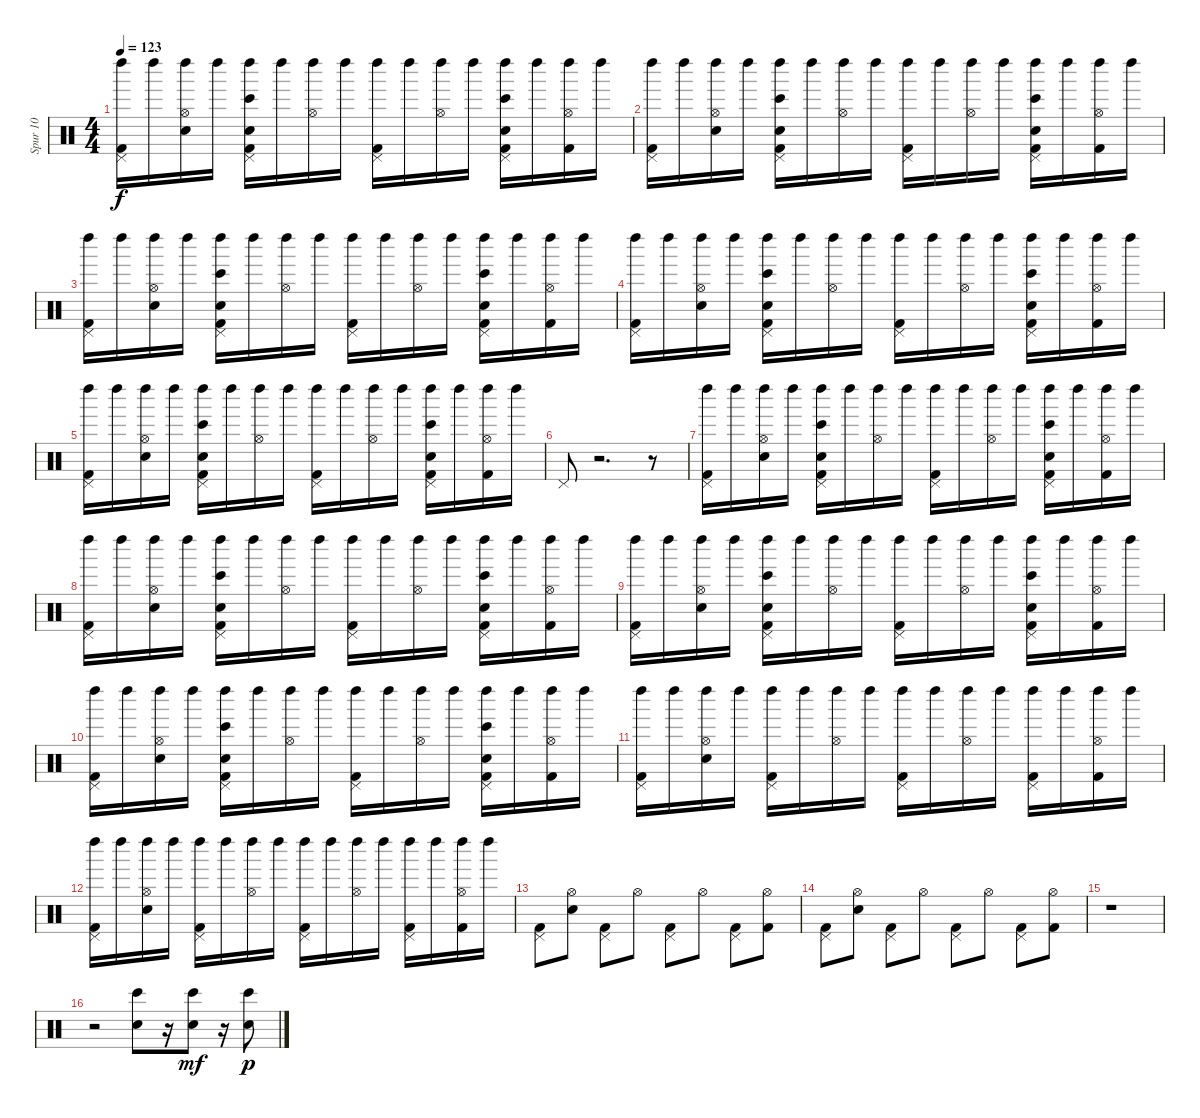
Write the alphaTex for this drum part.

\track ("Spur 10" "Spur 10") {instrument percussion}
\staff {score}
\articulation defaults
\ts (4 4)
\tempo 123
\clef neutral
\ks c
("Left Maraca (hit)" "Kick (hit) 2" "Pedal Hi-Hat (hit)").16{dy f} "Left Maraca (hit)".16 ("Left Maraca (hit)" "Electric Snare (hit)" "Hi-Hat (open)").16 "Left Maraca (hit)".16 ("Kick (hit) 2" "Left Maraca (hit)" "Snare (hit) 2" "Bongo High (hit)" "Pedal Hi-Hat (hit)").16 "Left Maraca (hit)".16 ("Left Maraca (hit)" "Hi-Hat (open)").16 "Left Maraca (hit)".16 ("Kick (hit) 2" "Left Maraca (hit)" "Pedal Hi-Hat (hit)").16 "Left Maraca (hit)".16 ("Left Maraca (hit)" "Hi-Hat (open)").16 "Left Maraca (hit)".16 ("Kick (hit) 2" "Snare (hit) 2" "Bongo High (hit)" "Left Maraca (hit)" "Pedal Hi-Hat (hit)").16 "Left Maraca (hit)".16 ("Left Maraca (hit)" "Kick (hit) 2" "Hi-Hat (open)").16 "Left Maraca (hit)".16 |
("Left Maraca (hit)" "Kick (hit) 2" "Pedal Hi-Hat (hit)").16 "Left Maraca (hit)".16 ("Electric Snare (hit)" "Left Maraca (hit)" "Hi-Hat (open)").16 "Left Maraca (hit)".16 ("Bongo High (hit)" "Left Maraca (hit)" "Kick (hit) 2" "Snare (hit) 2" "Pedal Hi-Hat (hit)").16 "Left Maraca (hit)".16 ("Left Maraca (hit)" "Hi-Hat (open)").16 "Left Maraca (hit)".16 ("Kick (hit) 2" "Left Maraca (hit)" "Pedal Hi-Hat (hit)").16 "Left Maraca (hit)".16 ("Left Maraca (hit)" "Hi-Hat (open)").16 "Left Maraca (hit)".16 ("Left Maraca (hit)" "Snare (hit) 2" "Bongo High (hit)" "Kick (hit) 2" "Pedal Hi-Hat (hit)").16 "Left Maraca (hit)".16 ("Kick (hit) 2" "Left Maraca (hit)" "Hi-Hat (open)").16 "Left Maraca (hit)".16 |
("Kick (hit) 2" "Left Maraca (hit)" "Pedal Hi-Hat (hit)").16 "Left Maraca (hit)".16 ("Electric Snare (hit)" "Left Maraca (hit)" "Hi-Hat (open)").16 "Left Maraca (hit)".16 ("Bongo High (hit)" "Left Maraca (hit)" "Snare (hit) 2" "Kick (hit) 2" "Pedal Hi-Hat (hit)").16 "Left Maraca (hit)".16 ("Left Maraca (hit)" "Hi-Hat (open)").16 "Left Maraca (hit)".16 ("Kick (hit) 2" "Left Maraca (hit)" "Pedal Hi-Hat (hit)").16 "Left Maraca (hit)".16 ("Left Maraca (hit)" "Hi-Hat (open)").16 "Left Maraca (hit)".16 ("Kick (hit) 2" "Snare (hit) 2" "Bongo High (hit)" "Left Maraca (hit)" "Pedal Hi-Hat (hit)").16 "Left Maraca (hit)".16 ("Left Maraca (hit)" "Kick (hit) 2" "Hi-Hat (open)").16 "Left Maraca (hit)".16 |
("Left Maraca (hit)" "Kick (hit) 2" "Pedal Hi-Hat (hit)").16 "Left Maraca (hit)".16 ("Left Maraca (hit)" "Electric Snare (hit)" "Hi-Hat (open)").16 "Left Maraca (hit)".16 ("Snare (hit) 2" "Kick (hit) 2" "Bongo High (hit)" "Left Maraca (hit)" "Pedal Hi-Hat (hit)").16 "Left Maraca (hit)".16 ("Left Maraca (hit)" "Hi-Hat (open)").16 "Left Maraca (hit)".16 ("Left Maraca (hit)" "Kick (hit) 2" "Pedal Hi-Hat (hit)").16 "Left Maraca (hit)".16 ("Left Maraca (hit)" "Hi-Hat (open)").16 "Left Maraca (hit)".16 ("Snare (hit) 2" "Left Maraca (hit)" "Kick (hit) 2" "Bongo High (hit)" "Pedal Hi-Hat (hit)").16 "Left Maraca (hit)".16 ("Left Maraca (hit)" "Kick (hit) 2" "Hi-Hat (open)").16 "Left Maraca (hit)".16 |
("Kick (hit) 2" "Left Maraca (hit)" "Pedal Hi-Hat (hit)").16 "Left Maraca (hit)".16 ("Electric Snare (hit)" "Left Maraca (hit)" "Hi-Hat (open)").16 "Left Maraca (hit)".16 ("Kick (hit) 2" "Left Maraca (hit)" "Snare (hit) 2" "Bongo High (hit)" "Pedal Hi-Hat (hit)").16 "Left Maraca (hit)".16 ("Left Maraca (hit)" "Hi-Hat (open)").16 "Left Maraca (hit)".16 ("Left Maraca (hit)" "Kick (hit) 2" "Pedal Hi-Hat (hit)").16 "Left Maraca (hit)".16 ("Left Maraca (hit)" "Hi-Hat (open)").16 "Left Maraca (hit)".16 ("Left Maraca (hit)" "Bongo High (hit)" "Snare (hit) 2" "Kick (hit) 2" "Pedal Hi-Hat (hit)").16 "Left Maraca (hit)".16 ("Left Maraca (hit)" "Kick (hit) 2" "Hi-Hat (open)").16 "Left Maraca (hit)".16 |
"Pedal Hi-Hat (hit)".8 r.2{d} r.8 |
("Left Maraca (hit)" "Kick (hit) 2" "Pedal Hi-Hat (hit)").16 "Left Maraca (hit)".16 ("Electric Snare (hit)" "Left Maraca (hit)" "Hi-Hat (open)").16 "Left Maraca (hit)".16 ("Bongo High (hit)" "Left Maraca (hit)" "Kick (hit) 2" "Snare (hit) 2" "Pedal Hi-Hat (hit)").16 "Left Maraca (hit)".16 ("Left Maraca (hit)" "Hi-Hat (open)").16 "Left Maraca (hit)".16 ("Kick (hit) 2" "Left Maraca (hit)" "Pedal Hi-Hat (hit)").16 "Left Maraca (hit)".16 ("Left Maraca (hit)" "Hi-Hat (open)").16 "Left Maraca (hit)".16 ("Left Maraca (hit)" "Snare (hit) 2" "Bongo High (hit)" "Kick (hit) 2" "Pedal Hi-Hat (hit)").16 "Left Maraca (hit)".16 ("Kick (hit) 2" "Left Maraca (hit)" "Hi-Hat (open)").16 "Left Maraca (hit)".16 |
("Kick (hit) 2" "Left Maraca (hit)" "Pedal Hi-Hat (hit)").16 "Left Maraca (hit)".16 ("Electric Snare (hit)" "Left Maraca (hit)" "Hi-Hat (open)").16 "Left Maraca (hit)".16 ("Bongo High (hit)" "Left Maraca (hit)" "Snare (hit) 2" "Kick (hit) 2" "Pedal Hi-Hat (hit)").16 "Left Maraca (hit)".16 ("Left Maraca (hit)" "Hi-Hat (open)").16 "Left Maraca (hit)".16 ("Kick (hit) 2" "Left Maraca (hit)" "Pedal Hi-Hat (hit)").16 "Left Maraca (hit)".16 ("Left Maraca (hit)" "Hi-Hat (open)").16 "Left Maraca (hit)".16 ("Kick (hit) 2" "Snare (hit) 2" "Bongo High (hit)" "Left Maraca (hit)" "Pedal Hi-Hat (hit)").16 "Left Maraca (hit)".16 ("Left Maraca (hit)" "Kick (hit) 2" "Hi-Hat (open)").16 "Left Maraca (hit)".16 |
("Left Maraca (hit)" "Kick (hit) 2" "Pedal Hi-Hat (hit)").16 "Left Maraca (hit)".16 ("Left Maraca (hit)" "Electric Snare (hit)" "Hi-Hat (open)").16 "Left Maraca (hit)".16 ("Snare (hit) 2" "Kick (hit) 2" "Bongo High (hit)" "Left Maraca (hit)" "Pedal Hi-Hat (hit)").16 "Left Maraca (hit)".16 ("Left Maraca (hit)" "Hi-Hat (open)").16 "Left Maraca (hit)".16 ("Left Maraca (hit)" "Kick (hit) 2" "Pedal Hi-Hat (hit)").16 "Left Maraca (hit)".16 ("Left Maraca (hit)" "Hi-Hat (open)").16 "Left Maraca (hit)".16 ("Snare (hit) 2" "Left Maraca (hit)" "Kick (hit) 2" "Bongo High (hit)" "Pedal Hi-Hat (hit)").16 "Left Maraca (hit)".16 ("Left Maraca (hit)" "Kick (hit) 2" "Hi-Hat (open)").16 "Left Maraca (hit)".16 |
("Kick (hit) 2" "Left Maraca (hit)" "Pedal Hi-Hat (hit)").16 "Left Maraca (hit)".16 ("Electric Snare (hit)" "Left Maraca (hit)" "Hi-Hat (open)").16 "Left Maraca (hit)".16 ("Kick (hit) 2" "Left Maraca (hit)" "Snare (hit) 2" "Bongo High (hit)" "Pedal Hi-Hat (hit)").16 "Left Maraca (hit)".16 ("Left Maraca (hit)" "Hi-Hat (open)").16 "Left Maraca (hit)".16 ("Left Maraca (hit)" "Kick (hit) 2" "Pedal Hi-Hat (hit)").16 "Left Maraca (hit)".16 ("Left Maraca (hit)" "Hi-Hat (open)").16 "Left Maraca (hit)".16 ("Left Maraca (hit)" "Bongo High (hit)" "Snare (hit) 2" "Kick (hit) 2" "Pedal Hi-Hat (hit)").16 "Left Maraca (hit)".16 ("Left Maraca (hit)" "Kick (hit) 2" "Hi-Hat (open)").16 "Left Maraca (hit)".16 |
("Left Maraca (hit)" "Kick (hit) 2" "Pedal Hi-Hat (hit)").16 "Left Maraca (hit)".16 ("Electric Snare (hit)" "Left Maraca (hit)" "Hi-Hat (open)").16 "Left Maraca (hit)".16 ("Left Maraca (hit)" "Kick (hit) 2" "Pedal Hi-Hat (hit)").16 "Left Maraca (hit)".16 ("Left Maraca (hit)" "Hi-Hat (open)").16 "Left Maraca (hit)".16 ("Kick (hit) 2" "Left Maraca (hit)" "Pedal Hi-Hat (hit)").16 "Left Maraca (hit)".16 ("Left Maraca (hit)" "Hi-Hat (open)").16 "Left Maraca (hit)".16 ("Left Maraca (hit)" "Kick (hit) 2" "Pedal Hi-Hat (hit)").16 "Left Maraca (hit)".16 ("Kick (hit) 2" "Left Maraca (hit)" "Hi-Hat (open)").16 "Left Maraca (hit)".16 |
("Kick (hit) 2" "Left Maraca (hit)" "Pedal Hi-Hat (hit)").16 "Left Maraca (hit)".16 ("Electric Snare (hit)" "Left Maraca (hit)" "Hi-Hat (open)").16 "Left Maraca (hit)".16 ("Left Maraca (hit)" "Kick (hit) 2" "Pedal Hi-Hat (hit)").16 "Left Maraca (hit)".16 ("Left Maraca (hit)" "Hi-Hat (open)").16 "Left Maraca (hit)".16 ("Kick (hit) 2" "Left Maraca (hit)" "Pedal Hi-Hat (hit)").16 "Left Maraca (hit)".16 ("Left Maraca (hit)" "Hi-Hat (open)").16 "Left Maraca (hit)".16 ("Kick (hit) 2" "Left Maraca (hit)" "Pedal Hi-Hat (hit)").16 "Left Maraca (hit)".16 ("Left Maraca (hit)" "Kick (hit) 2" "Hi-Hat (open)").16 "Left Maraca (hit)".16 |
("Kick (hit) 2" "Pedal Hi-Hat (hit)").8 ("Electric Snare (hit)" "Hi-Hat (open)").8 ("Kick (hit) 2" "Pedal Hi-Hat (hit)").8 "Hi-Hat (open)".8 ("Kick (hit) 2" "Pedal Hi-Hat (hit)").8 "Hi-Hat (open)".8 ("Kick (hit) 2" "Pedal Hi-Hat (hit)").8 ("Kick (hit) 2" "Hi-Hat (open)").8 |
("Kick (hit) 2" "Pedal Hi-Hat (hit)").8 ("Electric Snare (hit)" "Hi-Hat (open)").8 ("Kick (hit) 2" "Pedal Hi-Hat (hit)").8 "Hi-Hat (open)".8 ("Kick (hit) 2" "Pedal Hi-Hat (hit)").8 "Hi-Hat (open)".8 ("Kick (hit) 2" "Pedal Hi-Hat (hit)").8 ("Kick (hit) 2" "Hi-Hat (open)").8 |
r.1 |
r.2 ("Hand Clap (hit)" "Bongo High (hit)").8 r.16 ("Hand Clap (hit)" "Bongo High (hit)").8{dy mf} r.16 ("Hand Clap (hit)" "Bongo High (hit)").8{dy p}
